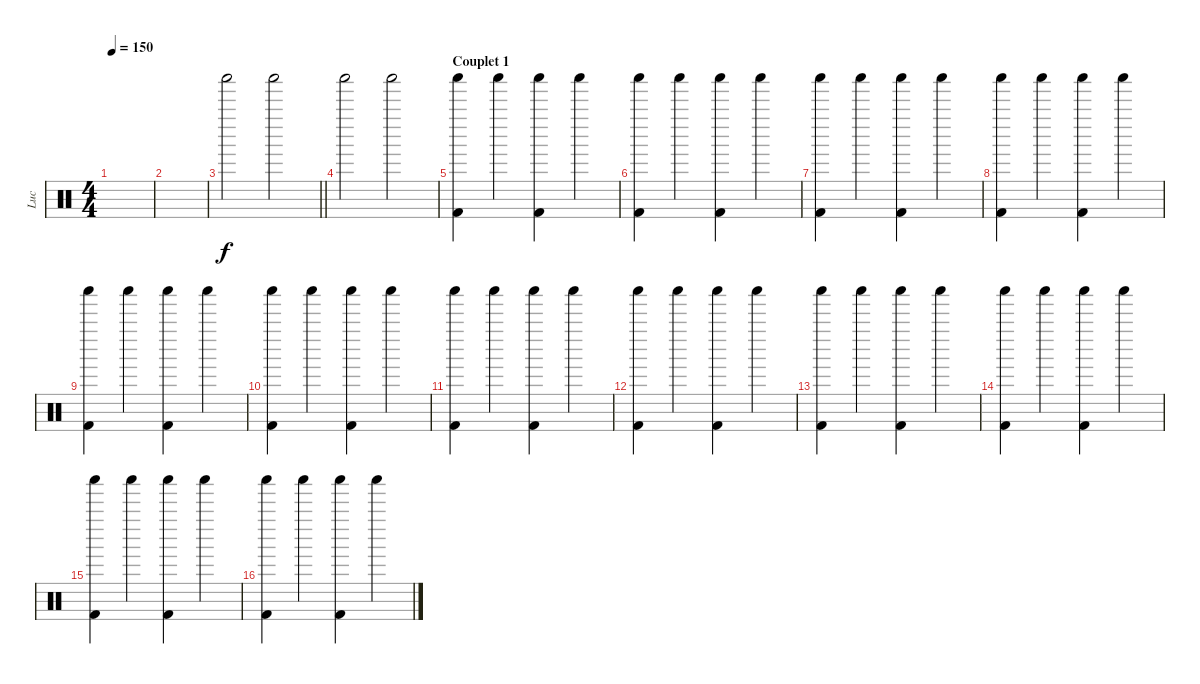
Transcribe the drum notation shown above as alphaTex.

\track ("Luc" "Luc") {instrument percussion}
\staff {score}
\articulation defaults
\ts (4 4)
\tempo 150
\clef neutral
\ks c
|
|
\barLineRight lightlight "Shaker (hit)".2 "Shaker (hit)".2
|
"Shaker (hit)".2 "Shaker (hit)".2 |
\section ("" "Couplet 1")
("Shaker (hit)" "Kick (hit) 2").4 "Shaker (hit)".4 ("Shaker (hit)" "Kick (hit) 2").4 "Shaker (hit)".4 |
("Shaker (hit)" "Kick (hit) 2").4 "Shaker (hit)".4 ("Shaker (hit)" "Kick (hit) 2").4 "Shaker (hit)".4 |
("Shaker (hit)" "Kick (hit) 2").4 "Shaker (hit)".4 ("Shaker (hit)" "Kick (hit) 2").4 "Shaker (hit)".4 |
("Shaker (hit)" "Kick (hit) 2").4 "Shaker (hit)".4 ("Shaker (hit)" "Kick (hit) 2").4 "Shaker (hit)".4 |
("Shaker (hit)" "Kick (hit) 2").4 "Shaker (hit)".4 ("Shaker (hit)" "Kick (hit) 2").4 "Shaker (hit)".4 |
("Shaker (hit)" "Kick (hit) 2").4 "Shaker (hit)".4 ("Shaker (hit)" "Kick (hit) 2").4 "Shaker (hit)".4 |
("Shaker (hit)" "Kick (hit) 2").4 "Shaker (hit)".4 ("Shaker (hit)" "Kick (hit) 2").4 "Shaker (hit)".4 |
("Shaker (hit)" "Kick (hit) 2").4 "Shaker (hit)".4 ("Shaker (hit)" "Kick (hit) 2").4 "Shaker (hit)".4 |
("Shaker (hit)" "Kick (hit) 2").4 "Shaker (hit)".4 ("Shaker (hit)" "Kick (hit) 2").4 "Shaker (hit)".4 |
("Shaker (hit)" "Kick (hit) 2").4 "Shaker (hit)".4 ("Shaker (hit)" "Kick (hit) 2").4 "Shaker (hit)".4 |
("Shaker (hit)" "Kick (hit) 2").4 "Shaker (hit)".4 ("Shaker (hit)" "Kick (hit) 2").4 "Shaker (hit)".4 |
("Shaker (hit)" "Kick (hit) 2").4 "Shaker (hit)".4 ("Shaker (hit)" "Kick (hit) 2").4 "Shaker (hit)".4
